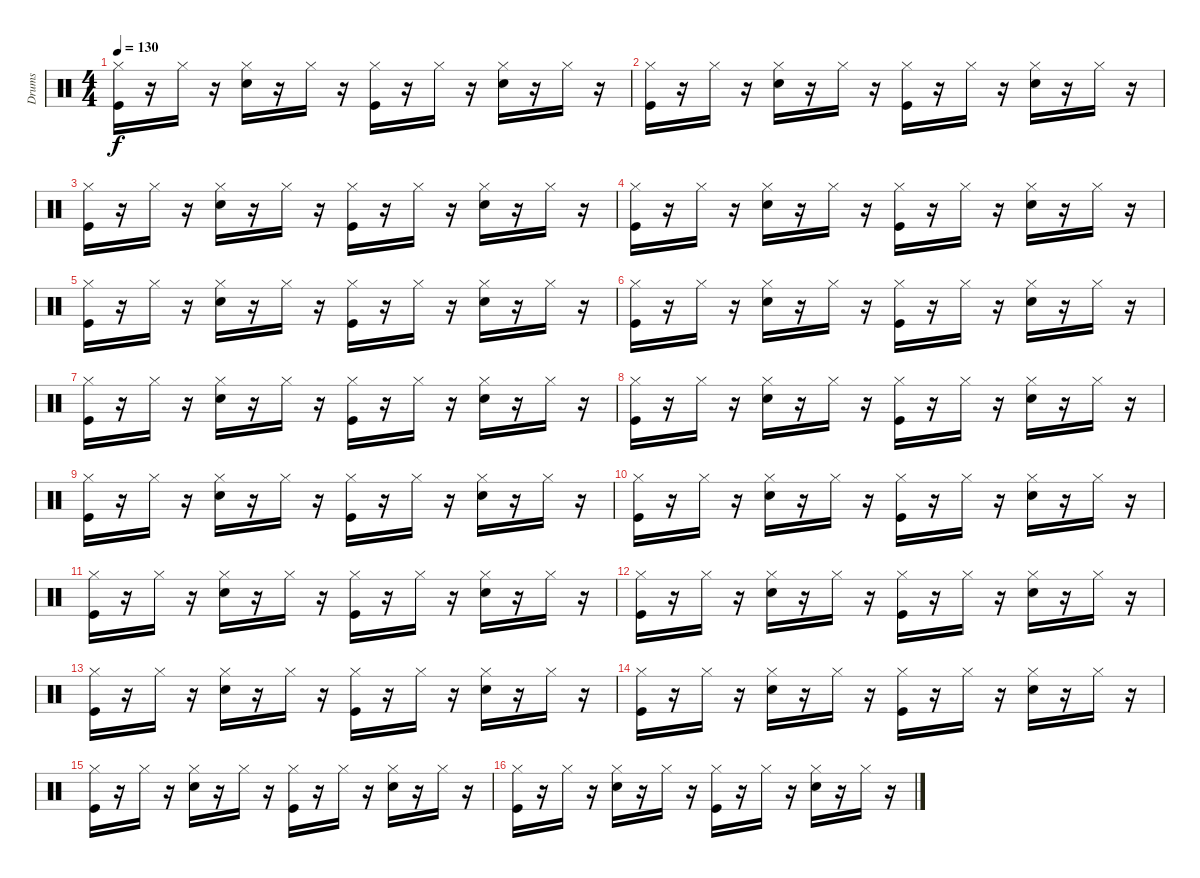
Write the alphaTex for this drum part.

\track ("Drums" "Drums") {instrument percussion}
\staff {score}
\articulation defaults
\ts (4 4)
\tempo 130
\clef neutral
\ks c
("Kick (hit)" "Hi-Hat (closed)").16{dy f} r.16 "Hi-Hat (closed)".16 r.16 ("Snare (hit) 2" "Hi-Hat (closed)").16 r.16 "Hi-Hat (closed)".16 r.16 ("Kick (hit)" "Hi-Hat (closed)").16 r.16 "Hi-Hat (closed)".16 r.16 ("Snare (hit) 2" "Hi-Hat (closed)").16 r.16 "Hi-Hat (closed)".16 r.16 |
("Kick (hit)" "Hi-Hat (closed)").16 r.16 "Hi-Hat (closed)".16 r.16 ("Snare (hit) 2" "Hi-Hat (closed)").16 r.16 "Hi-Hat (closed)".16 r.16 ("Kick (hit)" "Hi-Hat (closed)").16 r.16 "Hi-Hat (closed)".16 r.16 ("Snare (hit) 2" "Hi-Hat (closed)").16 r.16 "Hi-Hat (closed)".16 r.16 |
("Kick (hit)" "Hi-Hat (closed)").16 r.16 "Hi-Hat (closed)".16 r.16 ("Snare (hit) 2" "Hi-Hat (closed)").16 r.16 "Hi-Hat (closed)".16 r.16 ("Kick (hit)" "Hi-Hat (closed)").16 r.16 "Hi-Hat (closed)".16 r.16 ("Snare (hit) 2" "Hi-Hat (closed)").16 r.16 "Hi-Hat (closed)".16 r.16 |
("Kick (hit)" "Hi-Hat (closed)").16 r.16 "Hi-Hat (closed)".16 r.16 ("Snare (hit) 2" "Hi-Hat (closed)").16 r.16 "Hi-Hat (closed)".16 r.16 ("Kick (hit)" "Hi-Hat (closed)").16 r.16 "Hi-Hat (closed)".16 r.16 ("Snare (hit) 2" "Hi-Hat (closed)").16 r.16 "Hi-Hat (closed)".16 r.16 |
("Kick (hit)" "Hi-Hat (closed)").16 r.16 "Hi-Hat (closed)".16 r.16 ("Snare (hit) 2" "Hi-Hat (closed)").16 r.16 "Hi-Hat (closed)".16 r.16 ("Kick (hit)" "Hi-Hat (closed)").16 r.16 "Hi-Hat (closed)".16 r.16 ("Snare (hit) 2" "Hi-Hat (closed)").16 r.16 "Hi-Hat (closed)".16 r.16 |
("Kick (hit)" "Hi-Hat (closed)").16 r.16 "Hi-Hat (closed)".16 r.16 ("Snare (hit) 2" "Hi-Hat (closed)").16 r.16 "Hi-Hat (closed)".16 r.16 ("Kick (hit)" "Hi-Hat (closed)").16 r.16 "Hi-Hat (closed)".16 r.16 ("Snare (hit) 2" "Hi-Hat (closed)").16 r.16 "Hi-Hat (closed)".16 r.16 |
("Kick (hit)" "Hi-Hat (closed)").16 r.16 "Hi-Hat (closed)".16 r.16 ("Snare (hit) 2" "Hi-Hat (closed)").16 r.16 "Hi-Hat (closed)".16 r.16 ("Kick (hit)" "Hi-Hat (closed)").16 r.16 "Hi-Hat (closed)".16 r.16 ("Snare (hit) 2" "Hi-Hat (closed)").16 r.16 "Hi-Hat (closed)".16 r.16 |
("Kick (hit)" "Hi-Hat (closed)").16 r.16 "Hi-Hat (closed)".16 r.16 ("Snare (hit) 2" "Hi-Hat (closed)").16 r.16 "Hi-Hat (closed)".16 r.16 ("Kick (hit)" "Hi-Hat (closed)").16 r.16 "Hi-Hat (closed)".16 r.16 ("Snare (hit) 2" "Hi-Hat (closed)").16 r.16 "Hi-Hat (closed)".16 r.16 |
("Kick (hit)" "Hi-Hat (closed)").16 r.16 "Hi-Hat (closed)".16 r.16 ("Snare (hit) 2" "Hi-Hat (closed)").16 r.16 "Hi-Hat (closed)".16 r.16 ("Kick (hit)" "Hi-Hat (closed)").16 r.16 "Hi-Hat (closed)".16 r.16 ("Snare (hit) 2" "Hi-Hat (closed)").16 r.16 "Hi-Hat (closed)".16 r.16 |
("Kick (hit)" "Hi-Hat (closed)").16 r.16 "Hi-Hat (closed)".16 r.16 ("Snare (hit) 2" "Hi-Hat (closed)").16 r.16 "Hi-Hat (closed)".16 r.16 ("Kick (hit)" "Hi-Hat (closed)").16 r.16 "Hi-Hat (closed)".16 r.16 ("Snare (hit) 2" "Hi-Hat (closed)").16 r.16 "Hi-Hat (closed)".16 r.16 |
("Kick (hit)" "Hi-Hat (closed)").16{volume 16} r.16 "Hi-Hat (closed)".16 r.16 ("Snare (hit) 2" "Hi-Hat (closed)").16{volume 16} r.16 "Hi-Hat (closed)".16{volume 16} r.16 ("Kick (hit)" "Hi-Hat (closed)").16{volume 16} r.16 "Hi-Hat (closed)".16{volume 15} r.16 ("Snare (hit) 2" "Hi-Hat (closed)").16{volume 15} r.16 "Hi-Hat (closed)".16{volume 15} r.16 |
("Kick (hit)" "Hi-Hat (closed)").16{volume 15} r.16 "Hi-Hat (closed)".16 r.16 ("Snare (hit) 2" "Hi-Hat (closed)").16{volume 15} r.16 "Hi-Hat (closed)".16{volume 15} r.16 ("Kick (hit)" "Hi-Hat (closed)").16{volume 15} r.16 "Hi-Hat (closed)".16{volume 15} r.16 ("Snare (hit) 2" "Hi-Hat (closed)").16{volume 14} r.16 "Hi-Hat (closed)".16{volume 14} r.16 |
("Kick (hit)" "Hi-Hat (closed)").16{volume 14} r.16 "Hi-Hat (closed)".16{volume 14} r.16 ("Snare (hit) 2" "Hi-Hat (closed)").16 r.16 "Hi-Hat (closed)".16{volume 14} r.16 ("Kick (hit)" "Hi-Hat (closed)").16{volume 14} r.16 "Hi-Hat (closed)".16{volume 14} r.16 ("Snare (hit) 2" "Hi-Hat (closed)").16{volume 14} r.16 "Hi-Hat (closed)".16{volume 13} r.16 |
("Kick (hit)" "Hi-Hat (closed)").16{volume 13} r.16 "Hi-Hat (closed)".16{volume 13} r.16 ("Snare (hit) 2" "Hi-Hat (closed)").16 r.16 "Hi-Hat (closed)".16{volume 13} r.16 ("Kick (hit)" "Hi-Hat (closed)").16{volume 13} r.16 "Hi-Hat (closed)".16{volume 13} r.16 ("Snare (hit) 2" "Hi-Hat (closed)").16{volume 13} r.16 "Hi-Hat (closed)".16{volume 13} r.16 |
("Kick (hit)" "Hi-Hat (closed)").16{volume 12} r.16 "Hi-Hat (closed)".16{volume 12} r.16 ("Snare (hit) 2" "Hi-Hat (closed)").16{volume 12} r.16 "Hi-Hat (closed)".16 r.16 ("Kick (hit)" "Hi-Hat (closed)").16{volume 12} r.16 "Hi-Hat (closed)".16{volume 12} r.16 ("Snare (hit) 2" "Hi-Hat (closed)").16{volume 12} r.16 "Hi-Hat (closed)".16{volume 12} r.16 |
("Kick (hit)" "Hi-Hat (closed)").16{volume 12} r.16 "Hi-Hat (closed)".16{volume 11} r.16 ("Snare (hit) 2" "Hi-Hat (closed)").16{volume 11} r.16 "Hi-Hat (closed)".16 r.16 ("Kick (hit)" "Hi-Hat (closed)").16{volume 11} r.16 "Hi-Hat (closed)".16{volume 11} r.16 ("Snare (hit) 2" "Hi-Hat (closed)").16{volume 11} r.16 "Hi-Hat (closed)".16{volume 11} r.16
